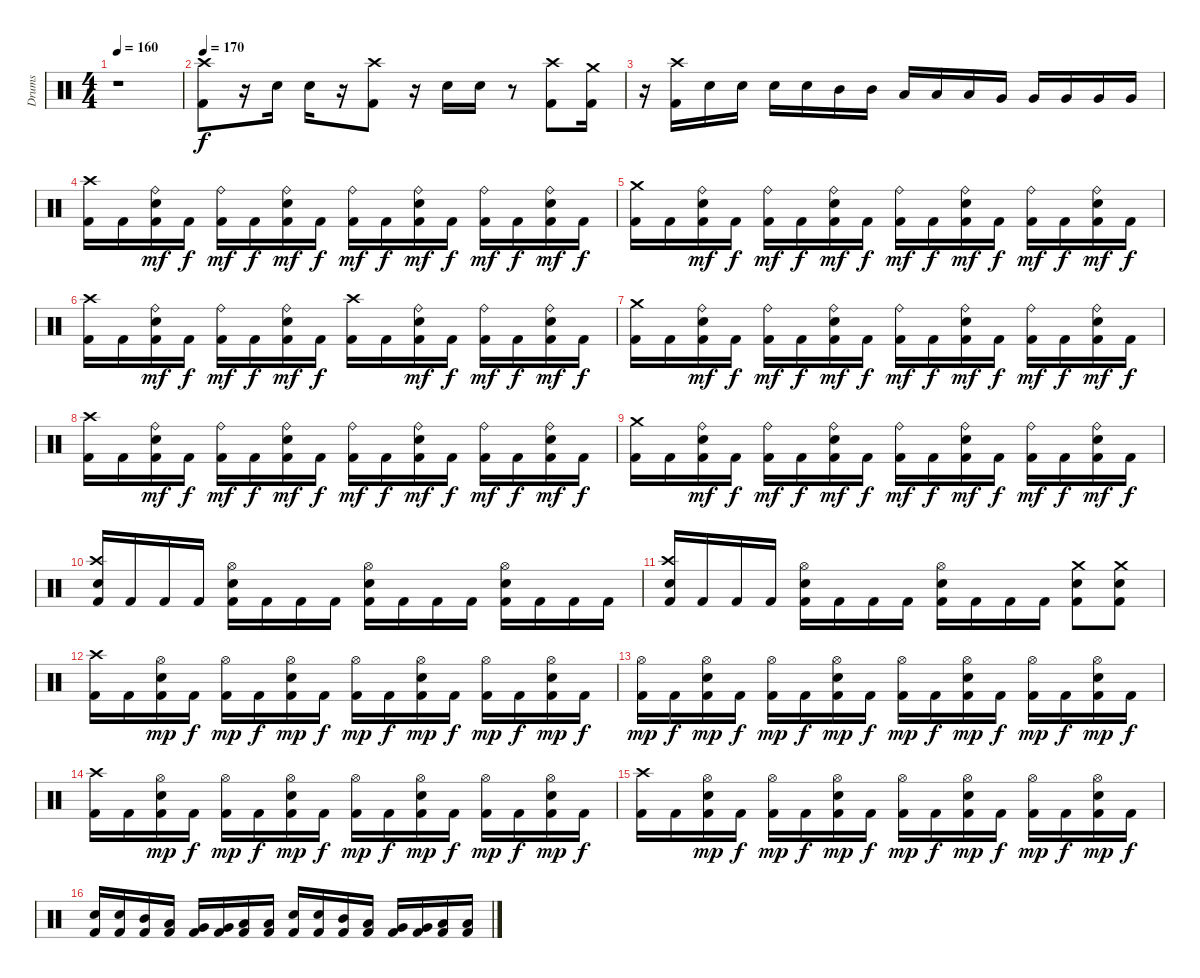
\track ("Drums" "Drums") {instrument percussion}
\staff {score}
\articulation defaults
\ts (4 4)
\tempo 160
\clef neutral
\ks c
r.1{dy mp} |
\tempo 170
("Kick (hit) 2" "Crash high (hit)").8{dy f} r.16 "Electric Snare (hit)".16 "Electric Snare (hit)".16 r.16 ("Kick (hit) 2" "Crash high (hit)").8 r.16 "Electric Snare (hit)".16 "Electric Snare (hit)".16 r.8 ("Kick (hit) 2" "Crash high (hit)").8 ("Kick (hit) 2" "Crash medium (hit)").16 |
r.16 ("Kick (hit) 2" "Crash high (hit)").16 "Electric Snare (hit)".16 "Electric Snare (hit)".16 "Electric Snare (hit)".16 "Electric Snare (hit)".16 "Mid Tom (hit)".16 "Mid Tom (hit)".16 "Low Tom (hit)".16 "Low Tom (hit)".16 "Low Tom (hit)".16 "Very Low Tom (hit)".16 "Very Low Tom (hit)".16 "Very Low Tom (hit)".16 "Very Low Tom (hit)".16 "Very Low Tom (hit)".16 |
("Kick (hit) 2" "Crash high (hit)").16 "Kick (hit) 2".16 ("Kick (hit) 2" "Electric Snare (hit)" "Ride (bell)").16{dy mf} "Kick (hit) 2".16{dy f} ("Kick (hit) 2" "Ride (bell)").16{dy mf} "Kick (hit) 2".16{dy f} ("Kick (hit) 2" "Electric Snare (hit)" "Ride (bell)").16{dy mf} "Kick (hit) 2".16{dy f} ("Kick (hit) 2" "Ride (bell)").16{dy mf} "Kick (hit) 2".16{dy f} ("Kick (hit) 2" "Electric Snare (hit)" "Ride (bell)").16{dy mf} "Kick (hit) 2".16{dy f} ("Kick (hit) 2" "Ride (bell)").16{dy mf} "Kick (hit) 2".16{dy f} ("Kick (hit) 2" "Electric Snare (hit)" "Ride (bell)").16{dy mf} "Kick (hit) 2".16{dy f} |
("Kick (hit) 2" "Crash medium (hit)").16 "Kick (hit) 2".16 ("Kick (hit) 2" "Electric Snare (hit)" "Ride (bell)").16{dy mf} "Kick (hit) 2".16{dy f} ("Kick (hit) 2" "Ride (bell)").16{dy mf} "Kick (hit) 2".16{dy f} ("Kick (hit) 2" "Electric Snare (hit)" "Ride (bell)").16{dy mf} "Kick (hit) 2".16{dy f} ("Kick (hit) 2" "Ride (bell)").16{dy mf} "Kick (hit) 2".16{dy f} ("Kick (hit) 2" "Electric Snare (hit)" "Ride (bell)").16{dy mf} "Kick (hit) 2".16{dy f} ("Kick (hit) 2" "Ride (bell)").16{dy mf} "Kick (hit) 2".16{dy f} ("Kick (hit) 2" "Electric Snare (hit)" "Ride (bell)").16{dy mf} "Kick (hit) 2".16{dy f} |
("Kick (hit) 2" "Crash high (hit)").16 "Kick (hit) 2".16 ("Kick (hit) 2" "Electric Snare (hit)" "Ride (bell)").16{dy mf} "Kick (hit) 2".16{dy f} ("Kick (hit) 2" "Ride (bell)").16{dy mf} "Kick (hit) 2".16{dy f} ("Kick (hit) 2" "Electric Snare (hit)" "Ride (bell)").16{dy mf} "Kick (hit) 2".16{dy f} ("Kick (hit) 2" "Crash high (hit)").16 "Kick (hit) 2".16 ("Kick (hit) 2" "Electric Snare (hit)" "Ride (bell)").16{dy mf} "Kick (hit) 2".16{dy f} ("Kick (hit) 2" "Ride (bell)").16{dy mf} "Kick (hit) 2".16{dy f} ("Kick (hit) 2" "Electric Snare (hit)" "Ride (bell)").16{dy mf} "Kick (hit) 2".16{dy f} |
("Kick (hit) 2" "Crash medium (hit)").16 "Kick (hit) 2".16 ("Kick (hit) 2" "Electric Snare (hit)" "Ride (bell)").16{dy mf} "Kick (hit) 2".16{dy f} ("Kick (hit) 2" "Ride (bell)").16{dy mf} "Kick (hit) 2".16{dy f} ("Kick (hit) 2" "Electric Snare (hit)" "Ride (bell)").16{dy mf} "Kick (hit) 2".16{dy f} ("Kick (hit) 2" "Ride (bell)").16{dy mf} "Kick (hit) 2".16{dy f} ("Kick (hit) 2" "Electric Snare (hit)" "Ride (bell)").16{dy mf} "Kick (hit) 2".16{dy f} ("Kick (hit) 2" "Ride (bell)").16{dy mf} "Kick (hit) 2".16{dy f} ("Kick (hit) 2" "Electric Snare (hit)" "Ride (bell)").16{dy mf} "Kick (hit) 2".16{dy f} |
("Kick (hit) 2" "Crash high (hit)").16 "Kick (hit) 2".16 ("Kick (hit) 2" "Electric Snare (hit)" "Ride (bell)").16{dy mf} "Kick (hit) 2".16{dy f} ("Kick (hit) 2" "Ride (bell)").16{dy mf} "Kick (hit) 2".16{dy f} ("Kick (hit) 2" "Electric Snare (hit)" "Ride (bell)").16{dy mf} "Kick (hit) 2".16{dy f} ("Kick (hit) 2" "Ride (bell)").16{dy mf} "Kick (hit) 2".16{dy f} ("Kick (hit) 2" "Electric Snare (hit)" "Ride (bell)").16{dy mf} "Kick (hit) 2".16{dy f} ("Kick (hit) 2" "Ride (bell)").16{dy mf} "Kick (hit) 2".16{dy f} ("Kick (hit) 2" "Electric Snare (hit)" "Ride (bell)").16{dy mf} "Kick (hit) 2".16{dy f} |
("Kick (hit) 2" "Crash medium (hit)").16 "Kick (hit) 2".16 ("Kick (hit) 2" "Electric Snare (hit)" "Ride (bell)").16{dy mf} "Kick (hit) 2".16{dy f} ("Kick (hit) 2" "Ride (bell)").16{dy mf} "Kick (hit) 2".16{dy f} ("Kick (hit) 2" "Electric Snare (hit)" "Ride (bell)").16{dy mf} "Kick (hit) 2".16{dy f} ("Kick (hit) 2" "Ride (bell)").16{dy mf} "Kick (hit) 2".16{dy f} ("Kick (hit) 2" "Electric Snare (hit)" "Ride (bell)").16{dy mf} "Kick (hit) 2".16{dy f} ("Kick (hit) 2" "Ride (bell)").16{dy mf} "Kick (hit) 2".16{dy f} ("Kick (hit) 2" "Electric Snare (hit)" "Ride (bell)").16{dy mf} "Kick (hit) 2".16{dy f} |
("Kick (hit) 2" "Electric Snare (hit)" "Crash high (hit)").16 "Kick (hit) 2".16 "Kick (hit) 2".16 "Kick (hit) 2".16 ("Kick (hit) 2" "Electric Snare (hit)" "Hi-Hat (open)").16 "Kick (hit) 2".16 "Kick (hit) 2".16 "Kick (hit) 2".16 ("Kick (hit) 2" "Electric Snare (hit)" "Hi-Hat (open)").16 "Kick (hit) 2".16 "Kick (hit) 2".16 "Kick (hit) 2".16 ("Kick (hit) 2" "Electric Snare (hit)" "Hi-Hat (open)").16 "Kick (hit) 2".16 "Kick (hit) 2".16 "Kick (hit) 2".16 |
("Kick (hit) 2" "Electric Snare (hit)" "Crash high (hit)").16 "Kick (hit) 2".16 "Kick (hit) 2".16 "Kick (hit) 2".16 ("Kick (hit) 2" "Electric Snare (hit)" "Hi-Hat (open)").16 "Kick (hit) 2".16 "Kick (hit) 2".16 "Kick (hit) 2".16 ("Kick (hit) 2" "Electric Snare (hit)" "Hi-Hat (open)").16 "Kick (hit) 2".16 "Kick (hit) 2".16 "Kick (hit) 2".16 ("Kick (hit) 2" "Electric Snare (hit)" "Crash medium (hit)").8 ("Kick (hit) 2" "Electric Snare (hit)" "Crash medium (hit)").8 |
("Kick (hit) 2" "Crash high (hit)").16 "Kick (hit) 2".16 ("Kick (hit) 2" "Electric Snare (hit)" "Hi-Hat (open)").16{dy mp} "Kick (hit) 2".16{dy f} ("Kick (hit) 2" "Hi-Hat (open)").16{dy mp} "Kick (hit) 2".16{dy f} ("Kick (hit) 2" "Electric Snare (hit)" "Hi-Hat (open)").16{dy mp} "Kick (hit) 2".16{dy f} ("Kick (hit) 2" "Hi-Hat (open)").16{dy mp} "Kick (hit) 2".16{dy f} ("Kick (hit) 2" "Electric Snare (hit)" "Hi-Hat (open)").16{dy mp} "Kick (hit) 2".16{dy f} ("Kick (hit) 2" "Hi-Hat (open)").16{dy mp} "Kick (hit) 2".16{dy f} ("Kick (hit) 2" "Electric Snare (hit)" "Hi-Hat (open)").16{dy mp} "Kick (hit) 2".16{dy f} |
("Kick (hit) 2" "Hi-Hat (open)").16{dy mp} "Kick (hit) 2".16{dy f} ("Kick (hit) 2" "Electric Snare (hit)" "Hi-Hat (open)").16{dy mp} "Kick (hit) 2".16{dy f} ("Kick (hit) 2" "Hi-Hat (open)").16{dy mp} "Kick (hit) 2".16{dy f} ("Kick (hit) 2" "Electric Snare (hit)" "Hi-Hat (open)").16{dy mp} "Kick (hit) 2".16{dy f} ("Kick (hit) 2" "Hi-Hat (open)").16{dy mp} "Kick (hit) 2".16{dy f} ("Kick (hit) 2" "Electric Snare (hit)" "Hi-Hat (open)").16{dy mp} "Kick (hit) 2".16{dy f} ("Kick (hit) 2" "Hi-Hat (open)").16{dy mp} "Kick (hit) 2".16{dy f} ("Kick (hit) 2" "Electric Snare (hit)" "Hi-Hat (open)").16{dy mp} "Kick (hit) 2".16{dy f} |
("Kick (hit) 2" "Crash high (hit)").16 "Kick (hit) 2".16 ("Kick (hit) 2" "Electric Snare (hit)" "Hi-Hat (open)").16{dy mp} "Kick (hit) 2".16{dy f} ("Kick (hit) 2" "Hi-Hat (open)").16{dy mp} "Kick (hit) 2".16{dy f} ("Kick (hit) 2" "Electric Snare (hit)" "Hi-Hat (open)").16{dy mp} "Kick (hit) 2".16{dy f} ("Kick (hit) 2" "Hi-Hat (open)").16{dy mp} "Kick (hit) 2".16{dy f} ("Kick (hit) 2" "Electric Snare (hit)" "Hi-Hat (open)").16{dy mp} "Kick (hit) 2".16{dy f} ("Kick (hit) 2" "Hi-Hat (open)").16{dy mp} "Kick (hit) 2".16{dy f} ("Kick (hit) 2" "Electric Snare (hit)" "Hi-Hat (open)").16{dy mp} "Kick (hit) 2".16{dy f} |
("Kick (hit) 2" "Crash high (hit)").16 "Kick (hit) 2".16 ("Kick (hit) 2" "Electric Snare (hit)" "Hi-Hat (open)").16{dy mp} "Kick (hit) 2".16{dy f} ("Kick (hit) 2" "Hi-Hat (open)").16{dy mp} "Kick (hit) 2".16{dy f} ("Kick (hit) 2" "Electric Snare (hit)" "Hi-Hat (open)").16{dy mp} "Kick (hit) 2".16{dy f} ("Kick (hit) 2" "Hi-Hat (open)").16{dy mp} "Kick (hit) 2".16{dy f} ("Kick (hit) 2" "Electric Snare (hit)" "Hi-Hat (open)").16{dy mp} "Kick (hit) 2".16{dy f} ("Kick (hit) 2" "Hi-Hat (open)").16{dy mp} "Kick (hit) 2".16{dy f} ("Kick (hit) 2" "Electric Snare (hit)" "Hi-Hat (open)").16{dy mp} "Kick (hit) 2".16{dy f} |
("Kick (hit) 2" "Electric Snare (hit)").16 ("Kick (hit) 2" "Electric Snare (hit)").16 ("Kick (hit) 2" "Mid Tom (hit)").16 ("Kick (hit) 2" "Low Tom (hit)").16 ("Kick (hit) 2" "Very Low Tom (hit)").16 ("Kick (hit) 2" "Very Low Tom (hit)").16 ("Kick (hit) 2" "Low Floor Tom (hit)").16 ("Kick (hit) 2" "Low Floor Tom (hit)").16 ("Kick (hit) 2" "Electric Snare (hit)").16 ("Kick (hit) 2" "Electric Snare (hit)").16 ("Kick (hit) 2" "Mid Tom (hit)").16 ("Kick (hit) 2" "Low Tom (hit)").16 ("Kick (hit) 2" "Very Low Tom (hit)").16 ("Kick (hit) 2" "Very Low Tom (hit)").16 ("Kick (hit) 2" "Low Floor Tom (hit)").16 ("Kick (hit) 2" "Low Floor Tom (hit)").16
